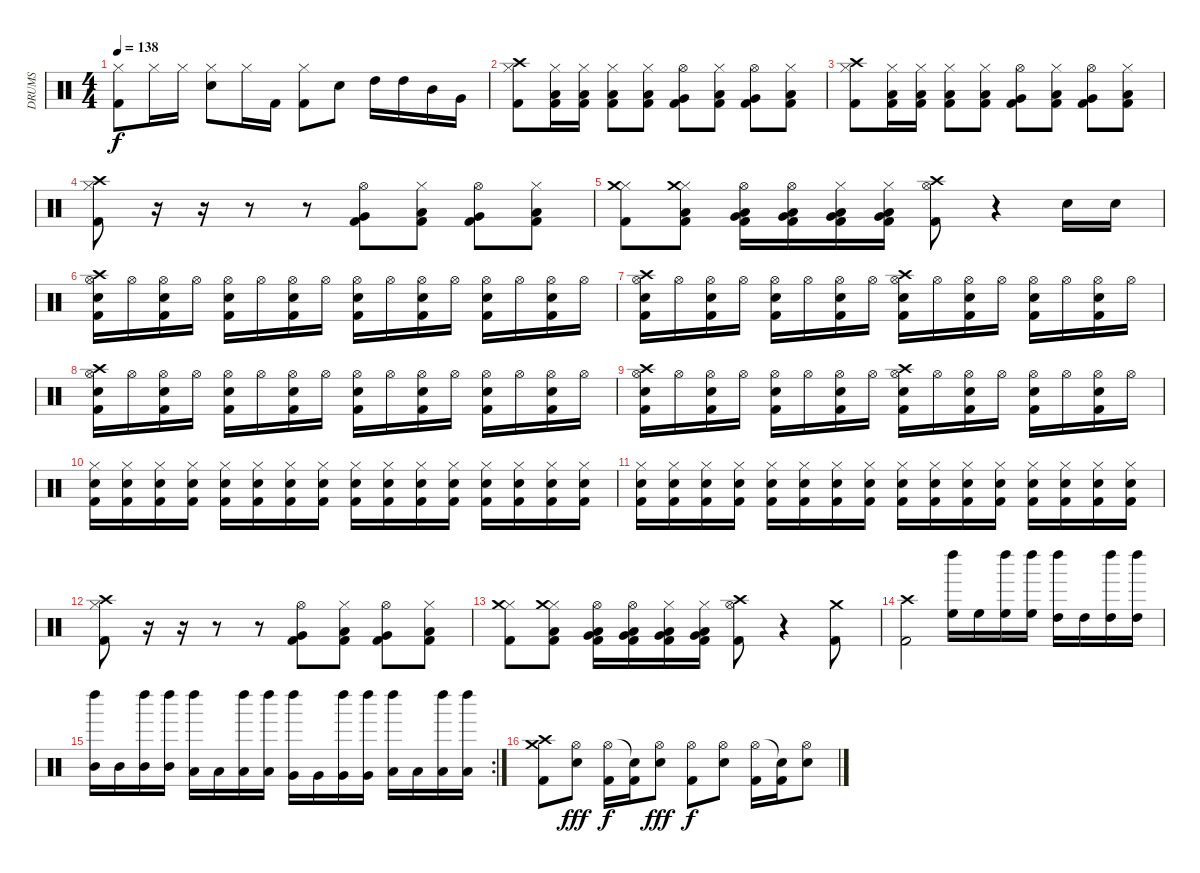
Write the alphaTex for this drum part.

\track ("DRUMS" "DRUMS") {instrument percussion}
\staff {score}
\articulation defaults
\ts (4 4)
\tempo 138
\clef neutral
\ks c
("Hi-Hat (closed)" "Kick (hit) 2").8{dy f} "Hi-Hat (closed)".16 "Hi-Hat (closed)".16 ("Hi-Hat (closed)" "Electric Snare (hit)").8 "Hi-Hat (closed)".16 "Kick (hit) 2".16 ("Hi-Hat (closed)" "Kick (hit) 2").8 "Electric Snare (hit)".8 "High Tom (hit)".16 "High Tom (hit)".16 "Mid Tom (hit)".16 "Very Low Tom (hit)".16 |
("Hi-Hat (closed)" "Crash high (hit)" "Kick (hit) 2").8 ("Hi-Hat (closed)" "Low Tom (hit)" "Kick (hit) 2").16 ("Hi-Hat (closed)" "Low Tom (hit)" "Kick (hit) 2").16 ("Hi-Hat (closed)" "Low Tom (hit)" "Kick (hit) 2").8 ("Hi-Hat (closed)" "Low Tom (hit)" "Kick (hit) 2").8 ("Hi-Hat (open)" "Very Low Tom (hit)" "Kick (hit) 2").8 ("Hi-Hat (closed)" "Low Tom (hit)" "Kick (hit) 2").8 ("Hi-Hat (open)" "Very Low Tom (hit)" "Kick (hit) 2").8 ("Hi-Hat (closed)" "Low Tom (hit)" "Kick (hit) 2").8 |
("Hi-Hat (closed)" "Crash high (hit)" "Kick (hit) 2").8 ("Hi-Hat (closed)" "Low Tom (hit)" "Kick (hit) 2").16 ("Hi-Hat (closed)" "Low Tom (hit)" "Kick (hit) 2").16 ("Hi-Hat (closed)" "Low Tom (hit)" "Kick (hit) 2").8 ("Hi-Hat (closed)" "Low Tom (hit)" "Kick (hit) 2").8 ("Hi-Hat (open)" "Very Low Tom (hit)" "Kick (hit) 2").8 ("Hi-Hat (closed)" "Low Tom (hit)" "Kick (hit) 2").8 ("Hi-Hat (open)" "Very Low Tom (hit)" "Kick (hit) 2").8 ("Hi-Hat (closed)" "Low Tom (hit)" "Kick (hit) 2").8 |
("Hi-Hat (closed)" "Crash high (hit)" "Kick (hit) 2").8 r.16 r.16 r.8 r.8 ("Hi-Hat (open)" "Very Low Tom (hit)" "Kick (hit) 2").8 ("Hi-Hat (closed)" "Low Tom (hit)" "Kick (hit) 2").8 ("Hi-Hat (open)" "Very Low Tom (hit)" "Kick (hit) 2").8 ("Hi-Hat (closed)" "Low Tom (hit)" "Kick (hit) 2").8 |
("Hi-Hat (closed)" "Crash medium (hit)" "Kick (hit) 2").8 ("Hi-Hat (closed)" "Crash medium (hit)" "Low Tom (hit)" "Kick (hit) 2").8 ("Hi-Hat (open)" "Very Low Tom (hit)" "Low Tom (hit)" "Kick (hit) 2").16 ("Hi-Hat (open)" "Very Low Tom (hit)" "Low Tom (hit)" "Kick (hit) 2").16 ("Hi-Hat (closed)" "Very Low Tom (hit)" "Low Tom (hit)" "Kick (hit) 2").16 ("Hi-Hat (closed)" "Very Low Tom (hit)" "Low Tom (hit)" "Kick (hit) 2").16 ("Hi-Hat (open)" "Crash high (hit)" "Kick (hit) 2").8 r.4 "Electric Snare (hit)".16 "Electric Snare (hit)".16 |
("Crash high (hit)" "Electric Snare (hit)" "Hi-Hat (open)" "Kick (hit) 2").16 "Hi-Hat (open)".16 ("Electric Snare (hit)" "Hi-Hat (open)" "Kick (hit) 2").16 "Hi-Hat (open)".16 ("Electric Snare (hit)" "Hi-Hat (open)" "Kick (hit) 2").16 "Hi-Hat (open)".16 ("Electric Snare (hit)" "Hi-Hat (open)" "Kick (hit) 2").16 "Hi-Hat (open)".16 ("Electric Snare (hit)" "Hi-Hat (open)" "Kick (hit) 2").16 "Hi-Hat (open)".16 ("Electric Snare (hit)" "Hi-Hat (open)" "Kick (hit) 2").16 "Hi-Hat (open)".16 ("Electric Snare (hit)" "Hi-Hat (open)" "Kick (hit) 2").16 "Hi-Hat (open)".16 ("Electric Snare (hit)" "Hi-Hat (open)" "Kick (hit) 2").16 "Hi-Hat (open)".16 |
("Crash high (hit)" "Electric Snare (hit)" "Hi-Hat (open)" "Kick (hit) 2").16 "Hi-Hat (open)".16 ("Electric Snare (hit)" "Hi-Hat (open)" "Kick (hit) 2").16 "Hi-Hat (open)".16 ("Electric Snare (hit)" "Hi-Hat (open)" "Kick (hit) 2").16 "Hi-Hat (open)".16 ("Electric Snare (hit)" "Hi-Hat (open)" "Kick (hit) 2").16 "Hi-Hat (open)".16 ("Crash high (hit)" "Electric Snare (hit)" "Hi-Hat (open)" "Kick (hit) 2").16 "Hi-Hat (open)".16 ("Electric Snare (hit)" "Hi-Hat (open)" "Kick (hit) 2").16 "Hi-Hat (open)".16 ("Electric Snare (hit)" "Hi-Hat (open)" "Kick (hit) 2").16 "Hi-Hat (open)".16 ("Electric Snare (hit)" "Hi-Hat (open)" "Kick (hit) 2").16 "Hi-Hat (open)".16 |
("Crash high (hit)" "Electric Snare (hit)" "Hi-Hat (open)" "Kick (hit) 2").16 "Hi-Hat (open)".16 ("Electric Snare (hit)" "Hi-Hat (open)" "Kick (hit) 2").16 "Hi-Hat (open)".16 ("Electric Snare (hit)" "Hi-Hat (open)" "Kick (hit) 2").16 "Hi-Hat (open)".16 ("Electric Snare (hit)" "Hi-Hat (open)" "Kick (hit) 2").16 "Hi-Hat (open)".16 ("Electric Snare (hit)" "Hi-Hat (open)" "Kick (hit) 2").16 "Hi-Hat (open)".16 ("Electric Snare (hit)" "Hi-Hat (open)" "Kick (hit) 2").16 "Hi-Hat (open)".16 ("Electric Snare (hit)" "Hi-Hat (open)" "Kick (hit) 2").16 "Hi-Hat (open)".16 ("Electric Snare (hit)" "Hi-Hat (open)" "Kick (hit) 2").16 "Hi-Hat (open)".16 |
("Crash high (hit)" "Electric Snare (hit)" "Hi-Hat (open)" "Kick (hit) 2").16 "Hi-Hat (open)".16 ("Electric Snare (hit)" "Hi-Hat (open)" "Kick (hit) 2").16 "Hi-Hat (open)".16 ("Electric Snare (hit)" "Hi-Hat (open)" "Kick (hit) 2").16 "Hi-Hat (open)".16 ("Electric Snare (hit)" "Hi-Hat (open)" "Kick (hit) 2").16 "Hi-Hat (open)".16 ("Crash high (hit)" "Electric Snare (hit)" "Hi-Hat (open)" "Kick (hit) 2").16 "Hi-Hat (open)".16 ("Electric Snare (hit)" "Hi-Hat (open)" "Kick (hit) 2").16 "Hi-Hat (open)".16 ("Electric Snare (hit)" "Hi-Hat (open)" "Kick (hit) 2").16 "Hi-Hat (open)".16 ("Electric Snare (hit)" "Hi-Hat (open)" "Kick (hit) 2").16 "Hi-Hat (open)".16 |
("Hi-Hat (closed)" "Electric Snare (hit)" "Kick (hit) 2").16 ("Hi-Hat (closed)" "Electric Snare (hit)" "Kick (hit) 2").16 ("Hi-Hat (closed)" "Electric Snare (hit)" "Kick (hit) 2").16 ("Hi-Hat (closed)" "Electric Snare (hit)" "Kick (hit) 2").16 ("Hi-Hat (closed)" "Electric Snare (hit)" "Kick (hit) 2").16 ("Hi-Hat (closed)" "Electric Snare (hit)" "Kick (hit) 2").16 ("Hi-Hat (closed)" "Electric Snare (hit)" "Kick (hit) 2").16 ("Hi-Hat (closed)" "Electric Snare (hit)" "Kick (hit) 2").16 ("Hi-Hat (closed)" "Electric Snare (hit)" "Kick (hit) 2").16 ("Hi-Hat (closed)" "Electric Snare (hit)" "Kick (hit) 2").16 ("Hi-Hat (closed)" "Electric Snare (hit)" "Kick (hit) 2").16 ("Hi-Hat (closed)" "Electric Snare (hit)" "Kick (hit) 2").16 ("Hi-Hat (closed)" "Electric Snare (hit)" "Kick (hit) 2").16 ("Hi-Hat (closed)" "Electric Snare (hit)" "Kick (hit) 2").16 ("Hi-Hat (closed)" "Electric Snare (hit)" "Kick (hit) 2").16 ("Hi-Hat (closed)" "Electric Snare (hit)" "Kick (hit) 2").16 |
("Hi-Hat (closed)" "Electric Snare (hit)" "Kick (hit) 2").16 ("Hi-Hat (closed)" "Electric Snare (hit)" "Kick (hit) 2").16 ("Hi-Hat (closed)" "Electric Snare (hit)" "Kick (hit) 2").16 ("Hi-Hat (closed)" "Electric Snare (hit)" "Kick (hit) 2").16 ("Hi-Hat (closed)" "Electric Snare (hit)" "Kick (hit) 2").16 ("Hi-Hat (closed)" "Electric Snare (hit)" "Kick (hit) 2").16 ("Hi-Hat (closed)" "Electric Snare (hit)" "Kick (hit) 2").16 ("Hi-Hat (closed)" "Electric Snare (hit)" "Kick (hit) 2").16 ("Hi-Hat (closed)" "Electric Snare (hit)" "Kick (hit) 2").16 ("Hi-Hat (closed)" "Electric Snare (hit)" "Kick (hit) 2").16 ("Hi-Hat (closed)" "Electric Snare (hit)" "Kick (hit) 2").16 ("Hi-Hat (closed)" "Electric Snare (hit)" "Kick (hit) 2").16 ("Hi-Hat (closed)" "Electric Snare (hit)" "Kick (hit) 2").16 ("Hi-Hat (closed)" "Electric Snare (hit)" "Kick (hit) 2").16 ("Hi-Hat (closed)" "Electric Snare (hit)" "Kick (hit) 2").16 ("Hi-Hat (closed)" "Electric Snare (hit)" "Kick (hit) 2").16 |
("Hi-Hat (closed)" "Crash high (hit)" "Kick (hit) 2").8 r.16 r.16 r.8 r.8 ("Hi-Hat (open)" "Very Low Tom (hit)" "Kick (hit) 2").8 ("Hi-Hat (closed)" "Low Tom (hit)" "Kick (hit) 2").8 ("Hi-Hat (open)" "Very Low Tom (hit)" "Kick (hit) 2").8 ("Hi-Hat (closed)" "Low Tom (hit)" "Kick (hit) 2").8 |
("Hi-Hat (closed)" "Crash medium (hit)" "Kick (hit) 2").8 ("Hi-Hat (closed)" "Crash medium (hit)" "Low Tom (hit)" "Kick (hit) 2").8 ("Hi-Hat (open)" "Very Low Tom (hit)" "Low Tom (hit)" "Kick (hit) 2").16 ("Hi-Hat (open)" "Very Low Tom (hit)" "Low Tom (hit)" "Kick (hit) 2").16 ("Hi-Hat (closed)" "Very Low Tom (hit)" "Low Tom (hit)" "Kick (hit) 2").16 ("Hi-Hat (closed)" "Very Low Tom (hit)" "Low Tom (hit)" "Kick (hit) 2").16 ("Hi-Hat (open)" "Crash high (hit)" "Kick (hit) 2").8 r.4 ("Crash medium (hit)" "Kick (hit) 2").8 |
("Crash high (hit)" "Kick (hit) 2").2 ("High Floor Tom (hit)" "Left Maraca (hit)").16 "High Floor Tom (hit)".16 ("High Floor Tom (hit)" "Left Maraca (hit)").16 ("High Floor Tom (hit)" "Left Maraca (hit)").16 ("High Tom (hit)" "Left Maraca (hit)").16 "High Tom (hit)".16 ("High Tom (hit)" "Left Maraca (hit)").16 ("High Tom (hit)" "Left Maraca (hit)").16 |
\rc 2
("Mid Tom (hit)" "Left Maraca (hit)").16 "Mid Tom (hit)".16 ("Mid Tom (hit)" "Left Maraca (hit)").16 ("Mid Tom (hit)" "Left Maraca (hit)").16 ("Low Tom (hit)" "Left Maraca (hit)").16 "Low Tom (hit)".16 ("Low Tom (hit)" "Left Maraca (hit)").16 ("Low Tom (hit)" "Left Maraca (hit)").16 ("Very Low Tom (hit)" "Left Maraca (hit)").16 "Very Low Tom (hit)".16 ("Very Low Tom (hit)" "Left Maraca (hit)").16 ("Very Low Tom (hit)" "Left Maraca (hit)").16 ("Low Floor Tom (hit)" "Left Maraca (hit)").16 "Low Floor Tom (hit)".16 ("Low Floor Tom (hit)" "Left Maraca (hit)").16 ("Low Floor Tom (hit)" "Left Maraca (hit)").16 |
("Crash medium (hit)" "Crash high (hit)" "Kick (hit) 2").8 ("Hi-Hat (open)" "Electric Snare (hit)").8{dy fff} ("Hi-Hat (open)" "Kick (hit) 2").16{dy f} ("Snare (hit)"{t} "Kick (hit) 2").16 ("Hi-Hat (open)" "Electric Snare (hit)").8{dy fff} ("Hi-Hat (open)" "Kick (hit) 2").8{dy f} ("Hi-Hat (open)" "Electric Snare (hit)").8 ("Hi-Hat (open)" "Kick (hit) 2").16 ("Snare (hit)"{t} "Kick (hit) 2").16 ("Hi-Hat (open)" "Electric Snare (hit)").8
